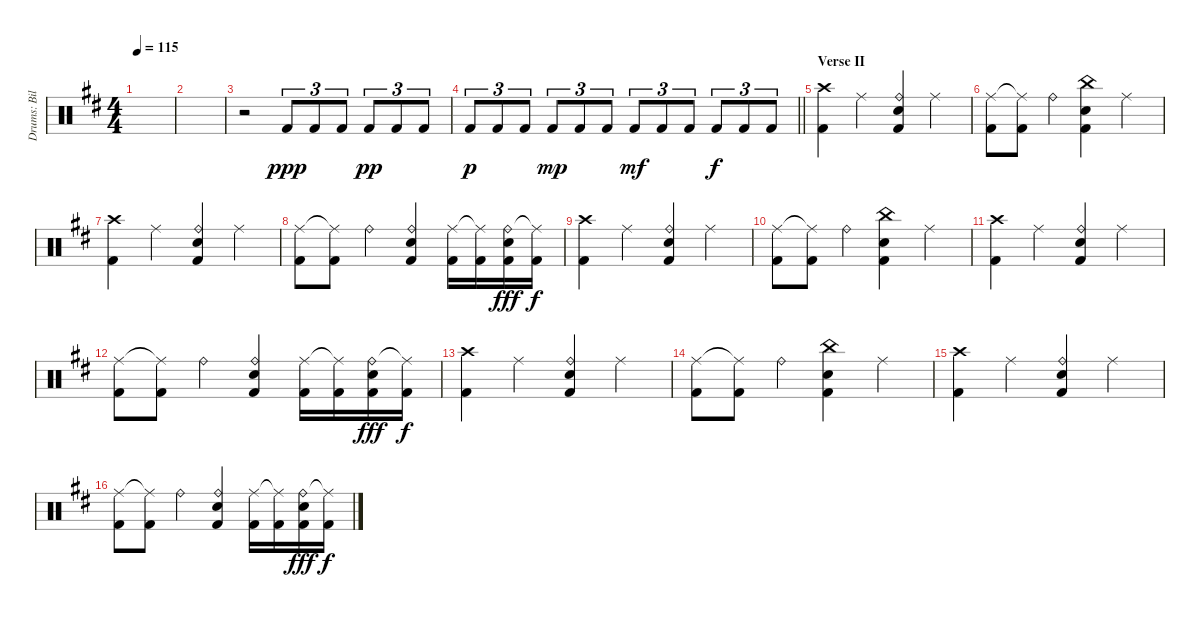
\track ("Drums: Bill" "Drums: Bil") {instrument percussion}
\staff {score}
\articulation defaults
\ts (4 4)
\tempo 115
\clef neutral
\ks d
|
|
r.2 "Kick (hit) 2".8{tu (3 2) dy ppp} "Kick (hit) 2".8{tu (3 2)} "Kick (hit) 2".8{tu (3 2)} "Kick (hit) 2".8{tu (3 2) dy pp} "Kick (hit) 2".8{tu (3 2)} "Kick (hit) 2".8{tu (3 2)} |
\barLineRight lightlight "Kick (hit) 2".8{tu (3 2) dy p} "Kick (hit) 2".8{tu (3 2)} "Kick (hit) 2".8{tu (3 2)} "Kick (hit) 2".8{tu (3 2) dy mp} "Kick (hit) 2".8{tu (3 2)} "Kick (hit) 2".8{tu (3 2)} "Kick (hit) 2".8{tu (3 2) dy mf} "Kick (hit) 2".8{tu (3 2)} "Kick (hit) 2".8{tu (3 2)} "Kick (hit) 2".8{tu (3 2) dy f} "Kick (hit) 2".8{tu (3 2)} "Kick (hit) 2".8{tu (3 2)}
|
\section ("" "Verse II")
("Crash high (hit)" "Kick (hit) 2").4 "Ride (middle)".4 ("Ride (bell)" "Snare (hit) 2" "Kick (hit) 2").4 "Ride (middle)".4 |
("Ride (middle)" "Kick (hit) 2").8 ("Ride (middle)"{t} "Kick (hit) 2").8 "Ride (bell)".4 ("China (hit)" "Snare (hit) 2" "Kick (hit) 2").4 "Ride (middle)".4 |
("Crash high (hit)" "Kick (hit) 2").4 "Ride (middle)".4 ("Ride (bell)" "Snare (hit) 2" "Kick (hit) 2").4 "Ride (middle)".4 |
("Ride (middle)" "Kick (hit) 2").8 ("Ride (middle)"{t} "Kick (hit) 2").8 "Ride (bell)".4 ("Ride (bell)" "Snare (hit) 2" "Kick (hit) 2").4 ("Ride (middle)" "Kick (hit) 2").16 ("Ride (middle)"{t} "Kick (hit) 2").16 ("Ride (bell)" "Snare (hit) 2" "Kick (hit) 2").16{dy fff} ("Ride (middle)"{t} "Kick (hit) 2").16{dy f} |
("Crash high (hit)" "Kick (hit) 2").4 "Ride (middle)".4 ("Ride (bell)" "Snare (hit) 2" "Kick (hit) 2").4 "Ride (middle)".4 |
("Ride (middle)" "Kick (hit) 2").8 ("Ride (middle)"{t} "Kick (hit) 2").8 "Ride (bell)".4 ("China (hit)" "Snare (hit) 2" "Kick (hit) 2").4 "Ride (middle)".4 |
("Crash high (hit)" "Kick (hit) 2").4 "Ride (middle)".4 ("Ride (bell)" "Snare (hit) 2" "Kick (hit) 2").4 "Ride (middle)".4 |
("Ride (middle)" "Kick (hit) 2").8 ("Ride (middle)"{t} "Kick (hit) 2").8 "Ride (bell)".4 ("Ride (bell)" "Snare (hit) 2" "Kick (hit) 2").4 ("Ride (middle)" "Kick (hit) 2").16 ("Ride (middle)"{t} "Kick (hit) 2").16 ("Ride (bell)" "Snare (hit) 2" "Kick (hit) 2").16{dy fff} ("Ride (middle)"{t} "Kick (hit) 2").16{dy f} |
("Crash high (hit)" "Kick (hit) 2").4 "Ride (middle)".4 ("Ride (bell)" "Snare (hit) 2" "Kick (hit) 2").4 "Ride (middle)".4 |
("Ride (middle)" "Kick (hit) 2").8 ("Ride (middle)"{t} "Kick (hit) 2").8 "Ride (bell)".4 ("China (hit)" "Snare (hit) 2" "Kick (hit) 2").4 "Ride (middle)".4 |
("Crash high (hit)" "Kick (hit) 2").4 "Ride (middle)".4 ("Ride (bell)" "Snare (hit) 2" "Kick (hit) 2").4 "Ride (middle)".4 |
("Ride (middle)" "Kick (hit) 2").8 ("Ride (middle)"{t} "Kick (hit) 2").8 "Ride (bell)".4 ("Ride (bell)" "Snare (hit) 2" "Kick (hit) 2").4 ("Ride (middle)" "Kick (hit) 2").16 ("Ride (middle)"{t} "Kick (hit) 2").16 ("Ride (bell)" "Snare (hit) 2" "Kick (hit) 2").16{dy fff} ("Ride (middle)"{t} "Kick (hit) 2").16{dy f}
